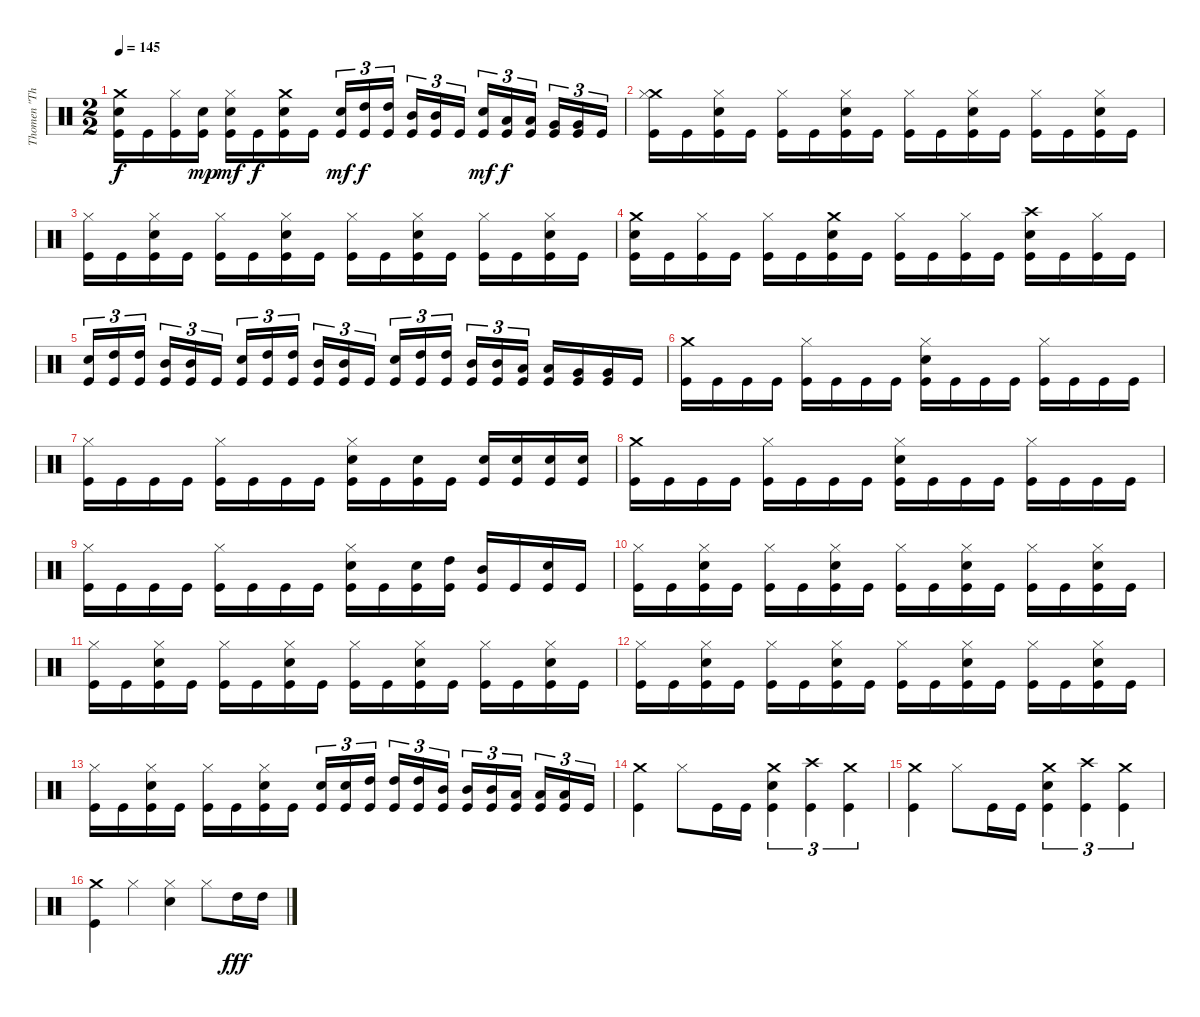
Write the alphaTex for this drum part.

\track ("Thomen \"The Omen\" Stauch" "Thomen \"Th") {instrument percussion}
\staff {score}
\articulation defaults
\ts (2 2)
\tempo 145
\clef neutral
\ks c
("Crash medium (hit)" "Snare (hit) 2" "Kick (hit)").16{dy f} "Kick (hit)".16 ("Hi-Hat (closed)" "Kick (hit)").16 ("Snare (hit) 2" "Kick (hit)").16{dy mp} ("Hi-Hat (closed)" "Snare (hit) 2" "Kick (hit)").16{dy mf} "Kick (hit)".16{dy f} ("Crash medium (hit)" "Snare (hit) 2" "Kick (hit)").16 "Kick (hit)".16 ("Snare (hit) 2" "Kick (hit)").16{tu (3 2) dy mf} ("High Tom (hit)" "Kick (hit)").16{tu (3 2) dy f} ("High Tom (hit)" "Kick (hit)").16{tu (3 2)} ("Mid Tom (hit)" "Kick (hit)").16{tu (3 2)} ("Mid Tom (hit)" "Kick (hit)").16{tu (3 2)} "Kick (hit)".16{tu (3 2)} ("Snare (hit) 2" "Kick (hit)").16{tu (3 2) dy mf} ("Low Tom (hit)" "Kick (hit)").16{tu (3 2) dy f} ("Low Tom (hit)" "Kick (hit)").16{tu (3 2)} ("Very Low Tom (hit)" "Kick (hit)").16{tu (3 2)} ("Very Low Tom (hit)" "Kick (hit)").16{tu (3 2)} "Kick (hit)".16{tu (3 2)} |
("Crash medium (hit)" "Hi-Hat (closed)" "Kick (hit)").16 "Kick (hit)".16 ("Hi-Hat (closed)" "Snare (hit) 2" "Kick (hit)").16 "Kick (hit)".16 ("Hi-Hat (closed)" "Kick (hit)").16 "Kick (hit)".16 ("Hi-Hat (closed)" "Snare (hit) 2" "Kick (hit)").16 "Kick (hit)".16 ("Hi-Hat (closed)" "Kick (hit)").16 "Kick (hit)".16 ("Hi-Hat (closed)" "Snare (hit) 2" "Kick (hit)").16 "Kick (hit)".16 ("Hi-Hat (closed)" "Kick (hit)").16 "Kick (hit)".16 ("Hi-Hat (closed)" "Snare (hit) 2" "Kick (hit)").16 "Kick (hit)".16 |
("Hi-Hat (closed)" "Kick (hit)").16 "Kick (hit)".16 ("Hi-Hat (closed)" "Snare (hit) 2" "Kick (hit)").16 "Kick (hit)".16 ("Hi-Hat (closed)" "Kick (hit)").16 "Kick (hit)".16 ("Hi-Hat (closed)" "Snare (hit) 2" "Kick (hit)").16 "Kick (hit)".16 ("Hi-Hat (closed)" "Kick (hit)").16 "Kick (hit)".16 ("Hi-Hat (closed)" "Snare (hit) 2" "Kick (hit)").16 "Kick (hit)".16 ("Hi-Hat (closed)" "Kick (hit)").16 "Kick (hit)".16 ("Hi-Hat (closed)" "Snare (hit) 2" "Kick (hit)").16 "Kick (hit)".16 |
("Crash medium (hit)" "Snare (hit) 2" "Kick (hit)").16 "Kick (hit)".16 ("Hi-Hat (closed)" "Kick (hit)").16 "Kick (hit)".16 ("Hi-Hat (closed)" "Kick (hit)").16 "Kick (hit)".16 ("Crash medium (hit)" "Snare (hit) 2" "Kick (hit)").16 "Kick (hit)".16 ("Hi-Hat (closed)" "Kick (hit)").16 "Kick (hit)".16 ("Hi-Hat (closed)" "Kick (hit)").16 "Kick (hit)".16 ("Crash high (hit)" "Snare (hit) 2" "Kick (hit)").16 "Kick (hit)".16 ("Hi-Hat (closed)" "Kick (hit)").16 "Kick (hit)".16 |
("Snare (hit) 2" "Kick (hit)").16{tu (3 2)} ("High Tom (hit)" "Kick (hit)").16{tu (3 2)} ("High Tom (hit)" "Kick (hit)").16{tu (3 2)} ("Mid Tom (hit)" "Kick (hit)").16{tu (3 2)} ("Mid Tom (hit)" "Kick (hit)").16{tu (3 2)} "Kick (hit)".16{tu (3 2)} ("Snare (hit) 2" "Kick (hit)").16{tu (3 2)} ("High Tom (hit)" "Kick (hit)").16{tu (3 2)} ("High Tom (hit)" "Kick (hit)").16{tu (3 2)} ("Mid Tom (hit)" "Kick (hit)").16{tu (3 2)} ("Mid Tom (hit)" "Kick (hit)").16{tu (3 2)} "Kick (hit)".16{tu (3 2)} ("Snare (hit) 2" "Kick (hit)").16{tu (3 2)} ("High Tom (hit)" "Kick (hit)").16{tu (3 2)} ("High Tom (hit)" "Kick (hit)").16{tu (3 2)} ("Mid Tom (hit)" "Kick (hit)").16{tu (3 2)} ("Mid Tom (hit)" "Kick (hit)").16{tu (3 2)} ("Low Tom (hit)" "Kick (hit)").16{tu (3 2)} ("Low Tom (hit)" "Kick (hit)").16 ("Very Low Tom (hit)" "Kick (hit)").16 ("Very Low Tom (hit)" "Kick (hit)").16 "Kick (hit)".16 |
("Crash medium (hit)" "Kick (hit)").16 "Kick (hit)".16 "Kick (hit)".16 "Kick (hit)".16 ("Hi-Hat (closed)" "Kick (hit)").16 "Kick (hit)".16 "Kick (hit)".16 "Kick (hit)".16 ("Hi-Hat (closed)" "Snare (hit) 2" "Kick (hit)").16 "Kick (hit)".16 "Kick (hit)".16 "Kick (hit)".16 ("Hi-Hat (closed)" "Kick (hit)").16 "Kick (hit)".16 "Kick (hit)".16 "Kick (hit)".16 |
("Hi-Hat (closed)" "Kick (hit)").16 "Kick (hit)".16 "Kick (hit)".16 "Kick (hit)".16 ("Hi-Hat (closed)" "Kick (hit)").16 "Kick (hit)".16 "Kick (hit)".16 "Kick (hit)".16 ("Hi-Hat (closed)" "Snare (hit) 2" "Kick (hit)").16 "Kick (hit)".16 ("Snare (hit) 2" "Kick (hit)").16 "Kick (hit)".16 ("Snare (hit) 2" "Kick (hit)").16 ("Snare (hit) 2" "Kick (hit)").16 ("Snare (hit) 2" "Kick (hit)").16 ("Snare (hit) 2" "Kick (hit)").16 |
("Crash medium (hit)" "Kick (hit)").16 "Kick (hit)".16 "Kick (hit)".16 "Kick (hit)".16 ("Hi-Hat (closed)" "Kick (hit)").16 "Kick (hit)".16 "Kick (hit)".16 "Kick (hit)".16 ("Hi-Hat (closed)" "Snare (hit) 2" "Kick (hit)").16 "Kick (hit)".16 "Kick (hit)".16 "Kick (hit)".16 ("Hi-Hat (closed)" "Kick (hit)").16 "Kick (hit)".16 "Kick (hit)".16 "Kick (hit)".16 |
("Hi-Hat (closed)" "Kick (hit)").16 "Kick (hit)".16 "Kick (hit)".16 "Kick (hit)".16 ("Hi-Hat (closed)" "Kick (hit)").16 "Kick (hit)".16 "Kick (hit)".16 "Kick (hit)".16 ("Hi-Hat (closed)" "Snare (hit) 2" "Kick (hit)").16 "Kick (hit)".16 ("Snare (hit) 2" "Kick (hit)").16 ("High Tom (hit)" "Kick (hit)").16 ("Mid Tom (hit)" "Kick (hit)").16 "Kick (hit)".16 ("Snare (hit) 2" "Kick (hit)").16 "Kick (hit)".16 |
("Hi-Hat (closed)" "Kick (hit)").16 "Kick (hit)".16 ("Hi-Hat (closed)" "Snare (hit) 2" "Kick (hit)").16 "Kick (hit)".16 ("Hi-Hat (closed)" "Kick (hit)").16 "Kick (hit)".16 ("Hi-Hat (closed)" "Snare (hit) 2" "Kick (hit)").16 "Kick (hit)".16 ("Hi-Hat (closed)" "Kick (hit)").16 "Kick (hit)".16 ("Hi-Hat (closed)" "Snare (hit) 2" "Kick (hit)").16 "Kick (hit)".16 ("Hi-Hat (closed)" "Kick (hit)").16 "Kick (hit)".16 ("Hi-Hat (closed)" "Snare (hit) 2" "Kick (hit)").16 "Kick (hit)".16 |
("Hi-Hat (closed)" "Kick (hit)").16 "Kick (hit)".16 ("Hi-Hat (closed)" "Snare (hit) 2" "Kick (hit)").16 "Kick (hit)".16 ("Hi-Hat (closed)" "Kick (hit)").16 "Kick (hit)".16 ("Hi-Hat (closed)" "Snare (hit) 2" "Kick (hit)").16 "Kick (hit)".16 ("Hi-Hat (closed)" "Kick (hit)").16 "Kick (hit)".16 ("Hi-Hat (closed)" "Snare (hit) 2" "Kick (hit)").16 "Kick (hit)".16 ("Hi-Hat (closed)" "Kick (hit)").16 "Kick (hit)".16 ("Hi-Hat (closed)" "Snare (hit) 2" "Kick (hit)").16 "Kick (hit)".16 |
("Hi-Hat (closed)" "Kick (hit)").16 "Kick (hit)".16 ("Hi-Hat (closed)" "Snare (hit) 2" "Kick (hit)").16 "Kick (hit)".16 ("Hi-Hat (closed)" "Kick (hit)").16 "Kick (hit)".16 ("Hi-Hat (closed)" "Snare (hit) 2" "Kick (hit)").16 "Kick (hit)".16 ("Hi-Hat (closed)" "Kick (hit)").16 "Kick (hit)".16 ("Hi-Hat (closed)" "Snare (hit) 2" "Kick (hit)").16 "Kick (hit)".16 ("Hi-Hat (closed)" "Kick (hit)").16 "Kick (hit)".16 ("Hi-Hat (closed)" "Snare (hit) 2" "Kick (hit)").16 "Kick (hit)".16 |
("Hi-Hat (closed)" "Kick (hit)").16 "Kick (hit)".16 ("Hi-Hat (closed)" "Snare (hit) 2" "Kick (hit)").16 "Kick (hit)".16 ("Hi-Hat (closed)" "Kick (hit)").16 "Kick (hit)".16 ("Hi-Hat (closed)" "Snare (hit) 2" "Kick (hit)").16 "Kick (hit)".16 ("Snare (hit) 2" "Kick (hit)").16{tu (3 2)} ("Snare (hit) 2" "Kick (hit)").16{tu (3 2)} ("High Tom (hit)" "Kick (hit)").16{tu (3 2)} ("High Tom (hit)" "Kick (hit)").16{tu (3 2)} ("High Tom (hit)" "Kick (hit)").16{tu (3 2)} ("Mid Tom (hit)" "Kick (hit)").16{tu (3 2)} ("Mid Tom (hit)" "Kick (hit)").16{tu (3 2)} ("Mid Tom (hit)" "Kick (hit)").16{tu (3 2)} ("Low Tom (hit)" "Kick (hit)").16{tu (3 2)} ("Low Tom (hit)" "Kick (hit)").16{tu (3 2)} ("Low Tom (hit)" "Kick (hit)").16{tu (3 2)} "Kick (hit)".16{tu (3 2)} |
("Crash medium (hit)" "Kick (hit)").4 "Hi-Hat (closed)".8 "Kick (hit)".16 "Kick (hit)".16 ("Crash medium (hit)" "Snare (hit) 2" "Kick (hit)").4{tu (3 2)} ("Crash high (hit)" "Kick (hit)").4{tu (3 2)} ("Crash medium (hit)" "Kick (hit)").4{tu (3 2)} |
("Crash medium (hit)" "Kick (hit)").4 "Hi-Hat (closed)".8 "Kick (hit)".16 "Kick (hit)".16 ("Crash medium (hit)" "Snare (hit) 2" "Kick (hit)").4{tu (3 2)} ("Crash high (hit)" "Kick (hit)").4{tu (3 2)} ("Crash medium (hit)" "Kick (hit)").4{tu (3 2)} |
("Crash medium (hit)" "Kick (hit)").4 "Hi-Hat (closed)".4 ("Hi-Hat (closed)" "Snare (hit) 2").4 "Hi-Hat (closed)".8 "High Tom (hit)".16{dy fff} "High Tom (hit)".16
